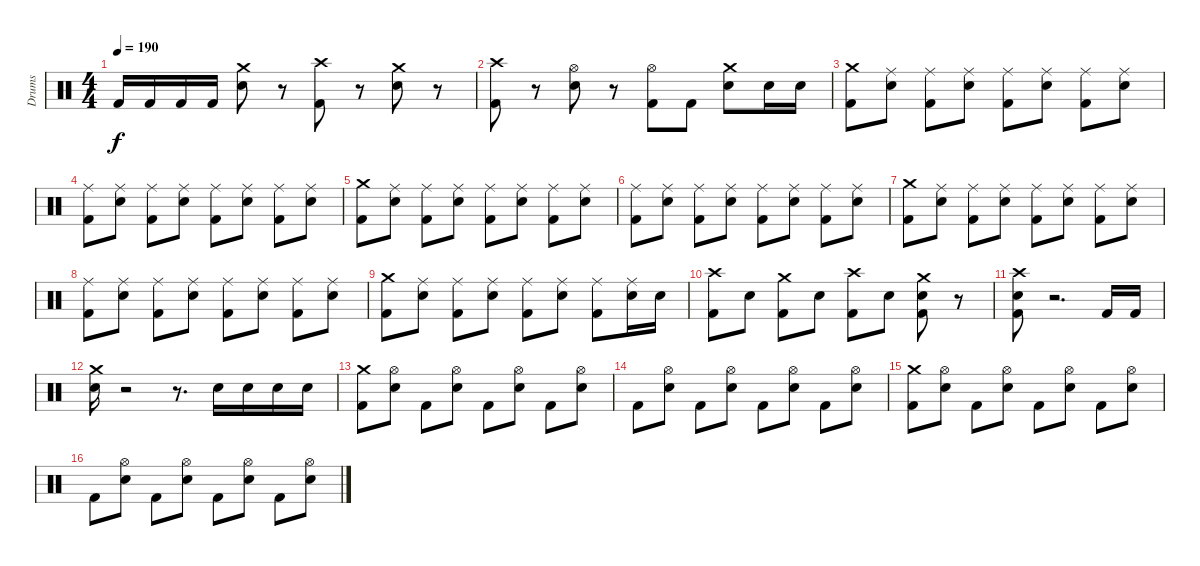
\track ("Drums" "Drums") {instrument percussion}
\staff {score}
\articulation defaults
\ts (4 4)
\tempo 190
\clef neutral
\ks c "Kick (hit) 2".16{dy f} "Kick (hit) 2".16 "Kick (hit) 2".16 "Kick (hit) 2".16
("Electric Snare (hit)" "Crash medium (hit)").8 r.8 ("Kick (hit) 2" "Crash high (hit)").8 r.8 ("Electric Snare (hit)" "Crash medium (hit)").8 r.8 |
("Kick (hit) 2" "Crash high (hit)").8 r.8 ("Electric Snare (hit)" "Hi-Hat (open)").8 r.8 ("Kick (hit) 2" "Hi-Hat (open)").8 "Kick (hit) 2".8 ("Electric Snare (hit)" "Crash medium (hit)").8 "Electric Snare (hit)".16 "Electric Snare (hit)".16 |
("Kick (hit) 2" "Crash medium (hit)").8 ("Electric Snare (hit)" "Ride (middle)").8 ("Kick (hit) 2" "Ride (middle)").8 ("Electric Snare (hit)" "Ride (middle)").8 ("Kick (hit) 2" "Ride (middle)").8 ("Electric Snare (hit)" "Ride (middle)").8 ("Kick (hit) 2" "Ride (middle)").8 ("Electric Snare (hit)" "Ride (middle)").8 |
("Kick (hit) 2" "Ride (middle)").8 ("Electric Snare (hit)" "Ride (middle)").8 ("Kick (hit) 2" "Ride (middle)").8 ("Electric Snare (hit)" "Ride (middle)").8 ("Kick (hit) 2" "Ride (middle)").8 ("Electric Snare (hit)" "Ride (middle)").8 ("Kick (hit) 2" "Ride (middle)").8 ("Electric Snare (hit)" "Ride (middle)").8 |
("Kick (hit) 2" "Crash medium (hit)").8 ("Electric Snare (hit)" "Ride (middle)").8 ("Kick (hit) 2" "Ride (middle)").8 ("Electric Snare (hit)" "Ride (middle)").8 ("Kick (hit) 2" "Ride (middle)").8 ("Electric Snare (hit)" "Ride (middle)").8 ("Kick (hit) 2" "Ride (middle)").8 ("Electric Snare (hit)" "Ride (middle)").8 |
("Kick (hit) 2" "Ride (middle)").8 ("Electric Snare (hit)" "Ride (middle)").8 ("Kick (hit) 2" "Ride (middle)").8 ("Electric Snare (hit)" "Ride (middle)").8 ("Kick (hit) 2" "Ride (middle)").8 ("Electric Snare (hit)" "Ride (middle)").8 ("Kick (hit) 2" "Ride (middle)").8 ("Electric Snare (hit)" "Ride (middle)").8 |
("Kick (hit) 2" "Crash medium (hit)").8 ("Electric Snare (hit)" "Ride (middle)").8 ("Kick (hit) 2" "Ride (middle)").8 ("Electric Snare (hit)" "Ride (middle)").8 ("Kick (hit) 2" "Ride (middle)").8 ("Electric Snare (hit)" "Ride (middle)").8 ("Kick (hit) 2" "Ride (middle)").8 ("Electric Snare (hit)" "Ride (middle)").8 |
("Kick (hit) 2" "Ride (middle)").8 ("Electric Snare (hit)" "Ride (middle)").8 ("Kick (hit) 2" "Ride (middle)").8 ("Electric Snare (hit)" "Ride (middle)").8 ("Kick (hit) 2" "Ride (middle)").8 ("Electric Snare (hit)" "Ride (middle)").8 ("Kick (hit) 2" "Ride (middle)").8 ("Electric Snare (hit)" "Ride (middle)").8 |
("Kick (hit) 2" "Crash medium (hit)").8 ("Electric Snare (hit)" "Ride (middle)").8 ("Kick (hit) 2" "Ride (middle)").8 ("Electric Snare (hit)" "Ride (middle)").8 ("Kick (hit) 2" "Ride (middle)").8 ("Electric Snare (hit)" "Ride (middle)").8 ("Kick (hit) 2" "Ride (middle)").8 ("Electric Snare (hit)" "Ride (middle)").16 "Electric Snare (hit)".16 |
("Kick (hit) 2" "Crash high (hit)").8 "Electric Snare (hit)".8 ("Kick (hit) 2" "Crash medium (hit)").8 "Electric Snare (hit)".8 ("Kick (hit) 2" "Crash high (hit)").8 "Electric Snare (hit)".8 ("Electric Snare (hit)" "Kick (hit) 2" "Crash medium (hit)").8 r.8 |
("Crash high (hit)" "Kick (hit) 2" "Electric Snare (hit)").8 r.2{d} "Kick (hit) 2".16 "Kick (hit) 2".16 |
("Crash medium (hit)" "Electric Snare (hit)").16 r.2 r.8{d} "Electric Snare (hit)".16 "Electric Snare (hit)".16 "Electric Snare (hit)".16 "Electric Snare (hit)".16 |
("Kick (hit) 2" "Crash medium (hit)").8 ("Hi-Hat (open)" "Electric Snare (hit)").8 "Kick (hit) 2".8 ("Hi-Hat (open)" "Electric Snare (hit)").8 "Kick (hit) 2".8 ("Hi-Hat (open)" "Electric Snare (hit)").8 "Kick (hit) 2".8 ("Hi-Hat (open)" "Electric Snare (hit)").8 |
"Kick (hit) 2".8 ("Hi-Hat (open)" "Electric Snare (hit)").8 "Kick (hit) 2".8 ("Hi-Hat (open)" "Electric Snare (hit)").8 "Kick (hit) 2".8 ("Hi-Hat (open)" "Electric Snare (hit)").8 "Kick (hit) 2".8 ("Hi-Hat (open)" "Electric Snare (hit)").8 |
("Kick (hit) 2" "Crash medium (hit)").8 ("Hi-Hat (open)" "Electric Snare (hit)").8 "Kick (hit) 2".8 ("Hi-Hat (open)" "Electric Snare (hit)").8 "Kick (hit) 2".8 ("Hi-Hat (open)" "Electric Snare (hit)").8 "Kick (hit) 2".8 ("Hi-Hat (open)" "Electric Snare (hit)").8 |
"Kick (hit) 2".8 ("Hi-Hat (open)" "Electric Snare (hit)").8 "Kick (hit) 2".8 ("Hi-Hat (open)" "Electric Snare (hit)").8 "Kick (hit) 2".8 ("Hi-Hat (open)" "Electric Snare (hit)").8 "Kick (hit) 2".8 ("Hi-Hat (open)" "Electric Snare (hit)").8
